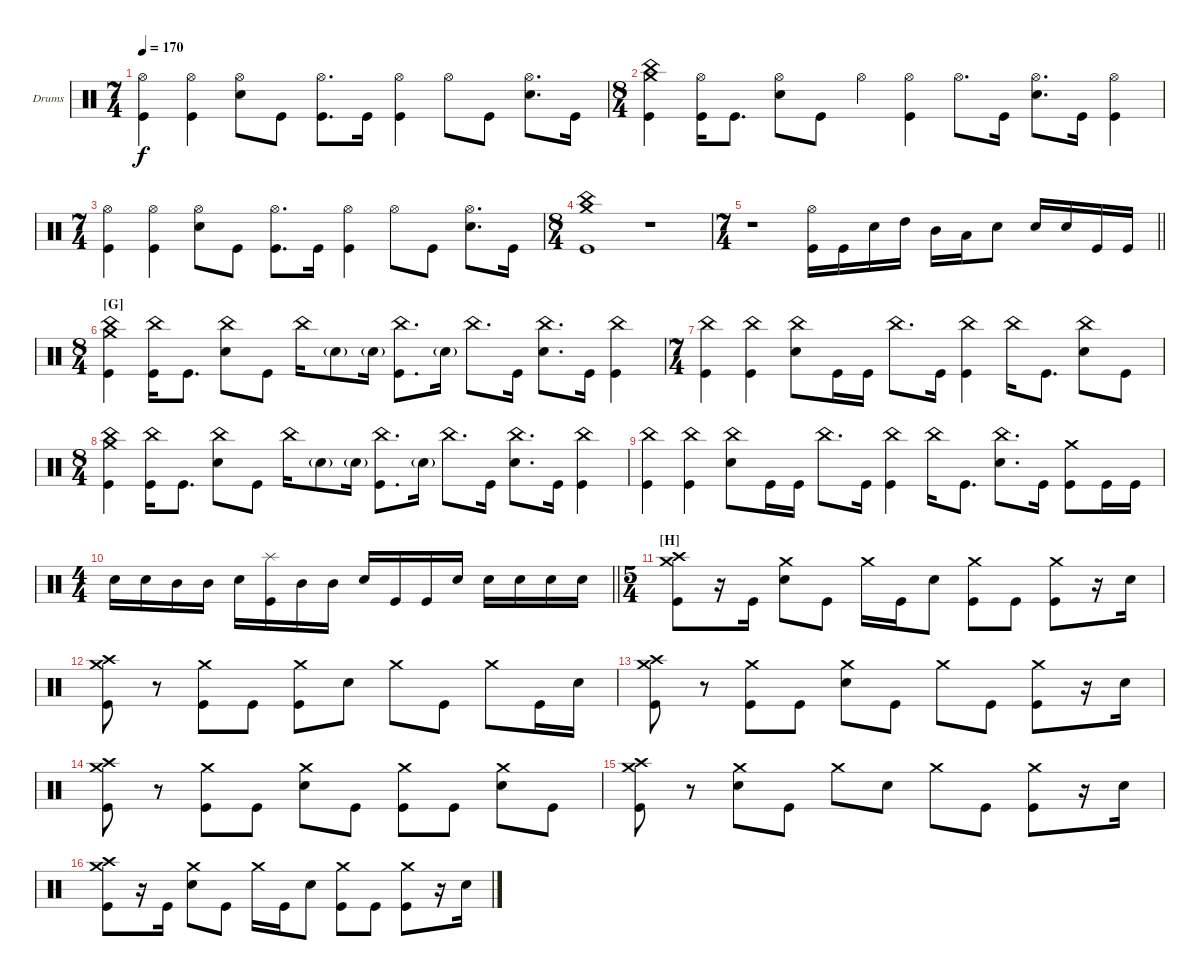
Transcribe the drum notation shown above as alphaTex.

\bracketExtendMode groupsimilarinstruments
\firstSystemTrackNameOrientation horizontal
\otherSystemsTrackNameOrientation horizontal
\track ("Drumkit" "Drums") {multiBarRest instrument percussion}
\staff {score}
\articulation defaults
\ts (7 4)
\tempo 170
\clef neutral
\ks c
("Hi-Hat (open)" "Kick (hit)").4{dy f} ("Hi-Hat (open)" "Kick (hit)").4 ("Hi-Hat (open)" "Snare (hit) 2").8 "Kick (hit)".8 ("Hi-Hat (open)" "Kick (hit)").8{d} "Kick (hit)".16 ("Hi-Hat (open)" "Kick (hit)").4 "Hi-Hat (open)".8 "Kick (hit)".8 ("Hi-Hat (open)" "Snare (hit) 2").8{d} "Kick (hit)".16 |
\ts (8 4)
("Crash medium (hit)" "China (hit)" "Kick (hit)").4 ("Hi-Hat (open)" "Kick (hit)").16 "Kick (hit)".8{d} ("Hi-Hat (open)" "Snare (hit) 2").8 "Kick (hit)".8 "Hi-Hat (open)".4 ("Hi-Hat (open)" "Kick (hit)").4 "Hi-Hat (open)".8{d} "Kick (hit)".16 ("Hi-Hat (open)" "Snare (hit) 2").8{d} "Kick (hit)".16{beam split} ("Hi-Hat (open)" "Kick (hit)").4 |
\ts (7 4)
("Hi-Hat (open)" "Kick (hit)").4 ("Hi-Hat (open)" "Kick (hit)").4 ("Hi-Hat (open)" "Snare (hit) 2").8 "Kick (hit)".8 ("Hi-Hat (open)" "Kick (hit)").8{d} "Kick (hit)".16 ("Hi-Hat (open)" "Kick (hit)").4 "Hi-Hat (open)".8 "Kick (hit)".8 ("Hi-Hat (open)" "Snare (hit) 2").8{d} "Kick (hit)".16 |
\ts (8 4)
("Crash medium (hit)" "China (hit)" "Kick (hit)").1 r.1 |
\ts (7 4)
\barLineRight lightlight
r.1 ("Hi-Hat (open)" "Kick (hit)").16 "Kick (hit)".16 "Snare (hit) 2".16 "High Tom (hit)".16 "Mid Tom (hit)".16 "Low Tom (hit)".16 "Snare (hit) 2".8{beam split} "Snare (hit) 2".16 "Snare (hit) 2".16 "Kick (hit)".16 "Kick (hit)".16 |
\ts (8 4)
\section ("G" "")
("Crash medium (hit)" "China (hit)" "Kick (hit)").4 ("China (hit)" "Kick (hit)").16 "Kick (hit)".8{d} ("China (hit)" "Snare (hit) 2").8 "Kick (hit)".8{beam split} "China (hit)".16 "Snare (hit) 2"{g}.8 "Snare (hit) 2"{g}.16 ("China (hit)" "Kick (hit)").8{d} "Snare (hit) 2"{g}.16{beam split} "China (hit)".8{d} "Kick (hit)".16 ("China (hit)" "Snare (hit) 2").8{d} "Kick (hit)".16 ("China (hit)" "Kick (hit)").4 |
\ts (7 4)
("China (hit)" "Kick (hit)").4 ("China (hit)" "Kick (hit)").4 ("China (hit)" "Snare (hit) 2").8 "Kick (hit)".16 "Kick (hit)".16 "China (hit)".8{d} "Kick (hit)".16{beam split} ("China (hit)" "Kick (hit)").4 "China (hit)".16 "Kick (hit)".8{d beam split} ("China (hit)" "Snare (hit) 2").8 "Kick (hit)".8 |
\ts (8 4)
("Crash medium (hit)" "China (hit)" "Kick (hit)").4 ("China (hit)" "Kick (hit)").16 "Kick (hit)".8{d} ("China (hit)" "Snare (hit) 2").8 "Kick (hit)".8{beam split} "China (hit)".16 "Snare (hit) 2"{g}.8 "Snare (hit) 2"{g}.16 ("China (hit)" "Kick (hit)").8{d} "Snare (hit) 2"{g}.16{beam split} "China (hit)".8{d} "Kick (hit)".16 ("China (hit)" "Snare (hit) 2").8{d} "Kick (hit)".16 ("China (hit)" "Kick (hit)").4 |
("China (hit)" "Kick (hit)").4 ("China (hit)" "Kick (hit)").4 ("China (hit)" "Snare (hit) 2").8 "Kick (hit)".16 "Kick (hit)".16{beam split} "China (hit)".8{d} "Kick (hit)".16 ("China (hit)" "Kick (hit)").4 "China (hit)".16 "Kick (hit)".8{d} ("China (hit)" "Snare (hit) 2").8{d} "Kick (hit)".16{beam split} ("Crash medium (hit)" "Kick (hit)").8 "Kick (hit)".16 "Kick (hit)".16 |
\ts (4 4)
\barLineRight lightlight "Snare (hit) 2".16 "Snare (hit) 2".16 "Mid Tom (hit)".16 "Mid Tom (hit)".16 "Snare (hit) 2".16
("Splash (hit)" "Kick (hit)").16 "Mid Tom (hit)".16 "Mid Tom (hit)".16 "Snare (hit) 2".16 "Kick (hit)".16 "Kick (hit)".16 "Snare (hit) 2".16 "Snare (hit) 2".16 "Snare (hit) 2".16 "Snare (hit) 2".16 "Snare (hit) 2".16 |
\ts (5 4)
\section ("H" "")
("Crash medium (hit)" "Crash high (hit)" "Kick (hit)").8 r.16 "Kick (hit)".16{beam split} ("Crash medium (hit)" "Snare (hit) 2").8 "Kick (hit)".8{beam split} "Crash medium (hit)".16 "Kick (hit)".16 "Snare (hit) 2".8 ("Crash medium (hit)" "Kick (hit)").8 "Kick (hit)".8{beam split} ("Crash medium (hit)" "Kick (hit)").8 r.16 "Snare (hit) 2".16 |
("Crash medium (hit)" "Crash high (hit)" "Kick (hit)").8 r.8 ("Crash medium (hit)" "Kick (hit)").8 "Kick (hit)".8 ("Crash medium (hit)" "Kick (hit)").8 "Snare (hit) 2".8 "Crash medium (hit)".8 "Kick (hit)".8{beam split} "Crash medium (hit)".8 "Kick (hit)".16 "Snare (hit) 2".16 |
("Crash medium (hit)" "Crash high (hit)" "Kick (hit)").8 r.8 ("Crash medium (hit)" "Kick (hit)").8 "Kick (hit)".8 ("Crash medium (hit)" "Snare (hit) 2").8 "Kick (hit)".8 "Crash medium (hit)".8 "Kick (hit)".8{beam split} ("Crash medium (hit)" "Kick (hit)").8 r.16 "Snare (hit) 2".16 |
("Crash medium (hit)" "Crash high (hit)" "Kick (hit)").8 r.8 ("Crash medium (hit)" "Kick (hit)").8 "Kick (hit)".8 ("Crash medium (hit)" "Snare (hit) 2").8 "Kick (hit)".8 ("Crash medium (hit)" "Kick (hit)").8 "Kick (hit)".8 ("Crash medium (hit)" "Snare (hit) 2").8 "Kick (hit)".8 |
("Crash medium (hit)" "Crash high (hit)" "Kick (hit)").8 r.8 ("Crash medium (hit)" "Snare (hit) 2").8 "Kick (hit)".8 "Crash medium (hit)".8 "Snare (hit) 2".8 "Crash medium (hit)".8 "Kick (hit)".8 ("Crash medium (hit)" "Kick (hit)").8 r.16 "Snare (hit) 2".16 |
("Crash medium (hit)" "Crash high (hit)" "Kick (hit)").8 r.16 "Kick (hit)".16{beam split} ("Crash medium (hit)" "Snare (hit) 2").8 "Kick (hit)".8{beam split} "Crash medium (hit)".16 "Kick (hit)".16 "Snare (hit) 2".8 ("Crash medium (hit)" "Kick (hit)").8 "Kick (hit)".8{beam split} ("Crash medium (hit)" "Kick (hit)").8 r.16 "Snare (hit) 2".16
